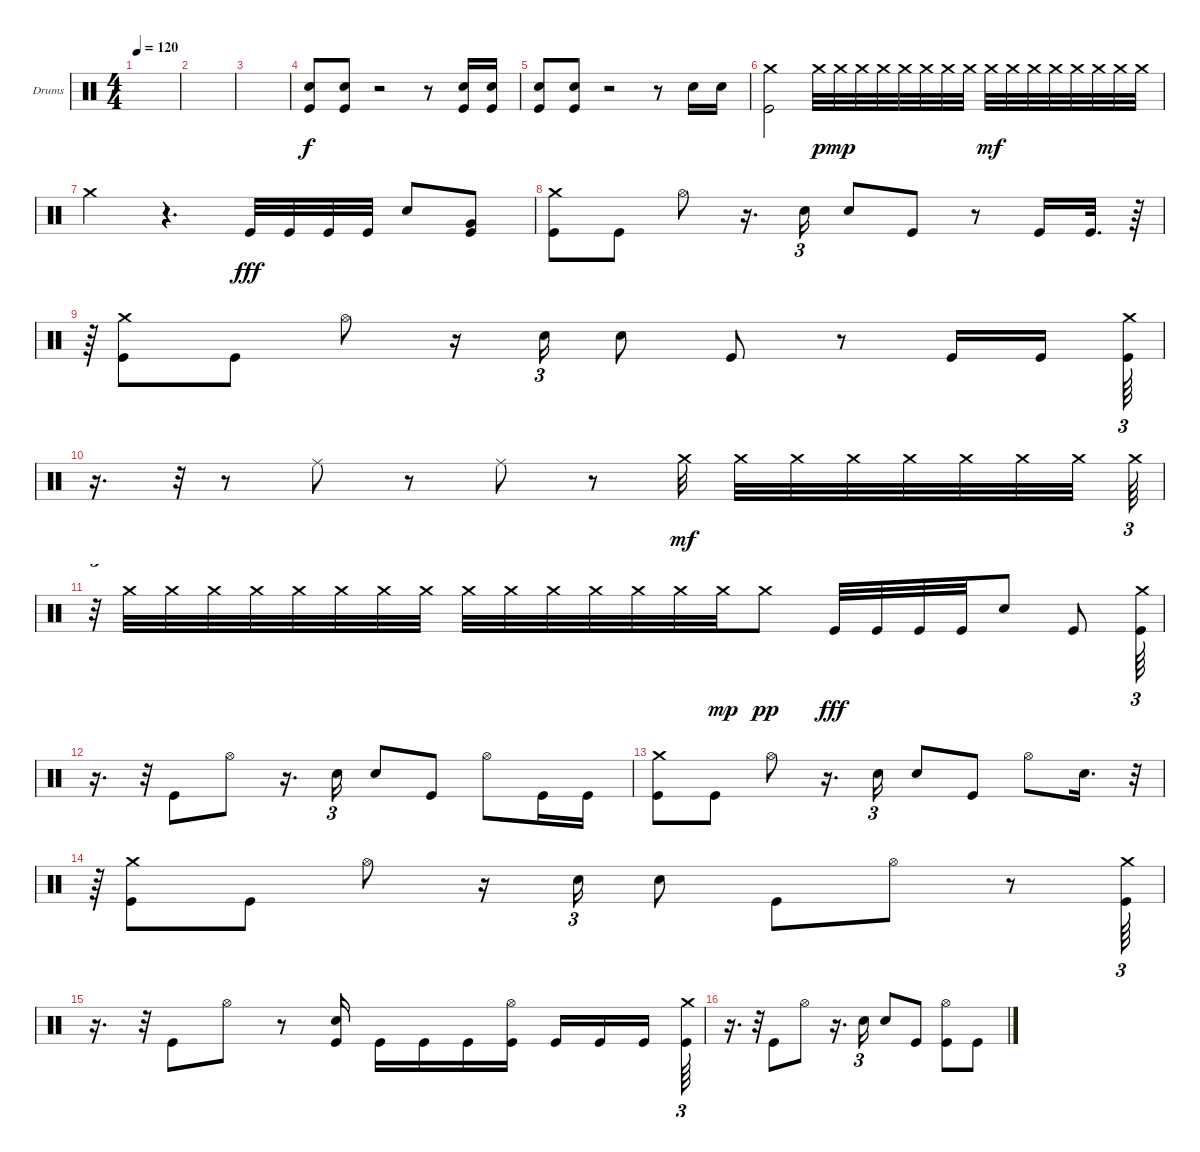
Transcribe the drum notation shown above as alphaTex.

\bracketExtendMode groupsimilarinstruments
\firstSystemTrackNameOrientation horizontal
\otherSystemsTrackNameOrientation horizontal
\track ("Drums" "Drums") {instrument percussion}
\staff {score}
\articulation defaults
\ts (4 4)
\tempo 120
\clef neutral
\ks c
|
|
|
("Snare (hit) 2" "Kick (hit)").8 ("Kick (hit)" "Snare (hit) 2").8 r.2 r.8 ("Kick (hit)" "Snare (hit) 2").16 ("Kick (hit)" "Snare (hit) 2").16 |
("Kick (hit)" "Snare (hit) 2").8 ("Kick (hit)" "Snare (hit) 2").8 r.2 r.8 "Snare (hit) 2".16 "Snare (hit) 2".16 |
("Crash medium (hit)" "Kick (hit)").2 "Crash medium (hit)".32{dy p} "Crash medium (hit)".32{dy mp} "Crash medium (hit)".32 "Crash medium (hit)".32 "Crash medium (hit)".32 "Crash medium (hit)".32 "Crash medium (hit)".32 "Crash medium (hit)".32 "Crash medium (hit)".32{dy mf} "Crash medium (hit)".32 "Crash medium (hit)".32 "Crash medium (hit)".32 "Crash medium (hit)".32 "Crash medium (hit)".32 "Crash medium (hit)".32 "Crash medium (hit)".32 |
"Crash medium (hit)".4 r.4{d} "Kick (hit)".32{dy fff} "Kick (hit)".32 "Kick (hit)".32 "Kick (hit)".32 "Snare (hit) 2".8 ("Kick (hit)" "Very Low Tom (hit)").8 |
("Kick (hit)" "Crash medium (hit)").8 "Kick (hit)".8 "Hi-Hat (open)".8 r.16{d} "Snare (hit) 2".16{tu (3 2)} "Snare (hit) 2".8 "Kick (hit)".8 r.8 "Kick (hit)".16 "Kick (hit)".32{d} r.64 |
r.64{tu (3 2)} ("Kick (hit)" "Crash medium (hit)").8 "Kick (hit)".8 "Hi-Hat (open)".8 r.16 "Snare (hit) 2".16{tu (3 2)} "Snare (hit) 2".8 "Kick (hit)".8 r.8 "Kick (hit)".16 "Kick (hit)".16 ("Kick (hit)" "Crash medium (hit)").64{tu (3 2)} |
r.16{d} r.32{tu (3 2)} r.8 "Ride (middle)".8 r.8 "Ride (middle)".8 r.8 "Crash medium (hit)".32{dy mf} "Crash medium (hit)".32 "Crash medium (hit)".32 "Crash medium (hit)".32 "Crash medium (hit)".32 "Crash medium (hit)".32 "Crash medium (hit)".32 "Crash medium (hit)".32 "Crash medium (hit)".64{tu (3 2)} |
r.32{tu (3 2)} "Crash medium (hit)".32 "Crash medium (hit)".32 "Crash medium (hit)".32 "Crash medium (hit)".32 "Crash medium (hit)".32 "Crash medium (hit)".32 "Crash medium (hit)".32 "Crash medium (hit)".32 "Crash medium (hit)".32 "Crash medium (hit)".32 "Crash medium (hit)".32 "Crash medium (hit)".32 "Crash medium (hit)".32 "Crash medium (hit)".32 "Crash medium (hit)".32{dy mp} "Crash medium (hit)".8{dy pp} "Kick (hit)".32{dy fff} "Kick (hit)".32 "Kick (hit)".32 "Kick (hit)".32 "Snare (hit) 2".8 "Kick (hit)".8 ("Crash medium (hit)" "Kick (hit)").64{tu (3 2)} |
r.16{d} r.32{tu (3 2)} "Kick (hit)".8 "Hi-Hat (open)".8 r.16{d} "Snare (hit) 2".16{tu (3 2)} "Snare (hit) 2".8 "Kick (hit)".8 "Hi-Hat (open)".8 "Kick (hit)".16 "Kick (hit)".16 |
("Crash medium (hit)" "Kick (hit)").8 "Kick (hit)".8 "Hi-Hat (open)".8 r.16{d} "Snare (hit) 2".16{tu (3 2)} "Snare (hit) 2".8 "Kick (hit)".8 "Hi-Hat (open)".8 "Snare (hit) 2".16{d} r.32{tu (3 2)} |
r.64{tu (3 2)} ("Crash medium (hit)" "Kick (hit)").8 "Kick (hit)".8 "Hi-Hat (open)".8 r.16 "Snare (hit) 2".16{tu (3 2)} "Snare (hit) 2".8 "Kick (hit)".8 "Hi-Hat (open)".8 r.8 ("Kick (hit)" "Crash medium (hit)").64{tu (3 2)} |
r.16{d} r.32{tu (3 2)} "Kick (hit)".8 "Hi-Hat (open)".8 r.8 ("Kick (hit)" "Snare (hit) 2").16 "Kick (hit)".16 "Kick (hit)".16 "Kick (hit)".16 ("Kick (hit)" "Hi-Hat (open)").16 "Kick (hit)".16 "Kick (hit)".16 "Kick (hit)".16 ("Crash medium (hit)" "Kick (hit)").64{tu (3 2)} |
r.16{d} r.32{tu (3 2)} "Kick (hit)".8 "Hi-Hat (open)".8 r.16{d} "Snare (hit) 2".16{tu (3 2)} "Snare (hit) 2".8 "Kick (hit)".8 ("Kick (hit)" "Hi-Hat (open)").8 "Kick (hit)".8
